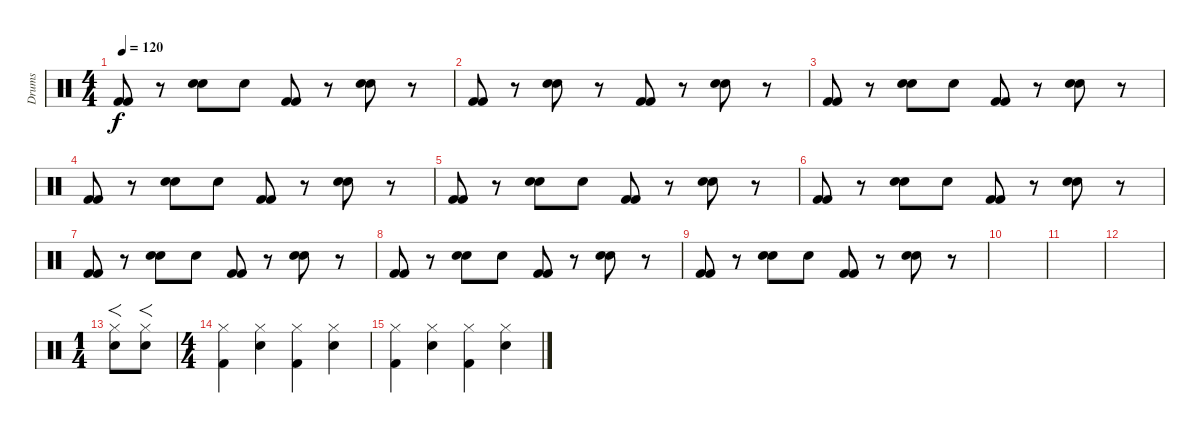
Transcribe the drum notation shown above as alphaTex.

\track ("Drums" "Drums") {instrument percussion}
\staff {score}
\articulation defaults
\ts (4 4)
\tempo 120
\clef neutral
\ks c
("Kick (hit) 2" "Kick (hit) 2").8{dy f} r.8 ("Snare (hit) 2" "Snare (hit) 2").8 "Snare (hit) 2".8 ("Kick (hit) 2" "Kick (hit) 2").8 r.8 ("Snare (hit) 2" "Snare (hit) 2").8 r.8 |
("Kick (hit) 2" "Kick (hit) 2").8 r.8 ("Snare (hit) 2" "Snare (hit) 2").8 r.8 ("Kick (hit) 2" "Kick (hit) 2").8 r.8 ("Snare (hit) 2" "Snare (hit) 2").8 r.8 |
("Kick (hit) 2" "Kick (hit) 2").8 r.8 ("Snare (hit) 2" "Snare (hit) 2").8 "Snare (hit) 2".8 ("Kick (hit) 2" "Kick (hit) 2").8 r.8 ("Snare (hit) 2" "Snare (hit) 2").8 r.8 |
("Kick (hit) 2" "Kick (hit) 2").8 r.8 ("Snare (hit) 2" "Snare (hit) 2").8 "Snare (hit) 2".8 ("Kick (hit) 2" "Kick (hit) 2").8 r.8 ("Snare (hit) 2" "Snare (hit) 2").8 r.8 |
("Kick (hit) 2" "Kick (hit) 2").8 r.8 ("Snare (hit) 2" "Snare (hit) 2").8 "Snare (hit) 2".8 ("Kick (hit) 2" "Kick (hit) 2").8 r.8 ("Snare (hit) 2" "Snare (hit) 2").8 r.8 |
("Kick (hit) 2" "Kick (hit) 2").8 r.8 ("Snare (hit) 2" "Snare (hit) 2").8 "Snare (hit) 2".8 ("Kick (hit) 2" "Kick (hit) 2").8 r.8 ("Snare (hit) 2" "Snare (hit) 2").8 r.8 |
("Kick (hit) 2" "Kick (hit) 2").8 r.8 ("Snare (hit) 2" "Snare (hit) 2").8 "Snare (hit) 2".8 ("Kick (hit) 2" "Kick (hit) 2").8 r.8 ("Snare (hit) 2" "Snare (hit) 2").8 r.8 |
("Kick (hit) 2" "Kick (hit) 2").8 r.8 ("Snare (hit) 2" "Snare (hit) 2").8 "Snare (hit) 2".8 ("Kick (hit) 2" "Kick (hit) 2").8 r.8 ("Snare (hit) 2" "Snare (hit) 2").8 r.8 |
("Kick (hit) 2" "Kick (hit) 2").8 r.8 ("Snare (hit) 2" "Snare (hit) 2").8 "Snare (hit) 2".8 ("Kick (hit) 2" "Kick (hit) 2").8 r.8 ("Snare (hit) 2" "Snare (hit) 2").8 r.8 |
|
|
|
\ts (1 4)
("Snare (hit) 2" "Hi-Hat (closed)").8{f} ("Snare (hit) 2" "Hi-Hat (closed)").8{f} |
\ts (4 4)
("Kick (hit) 2" "Hi-Hat (closed)").4 ("Snare (hit) 2" "Hi-Hat (closed)").4 ("Kick (hit) 2" "Hi-Hat (closed)").4 ("Snare (hit) 2" "Hi-Hat (closed)").4 |
("Kick (hit) 2" "Hi-Hat (closed)").4 ("Snare (hit) 2" "Hi-Hat (closed)").4 ("Kick (hit) 2" "Hi-Hat (closed)").4 ("Snare (hit) 2" "Hi-Hat (closed)").4
